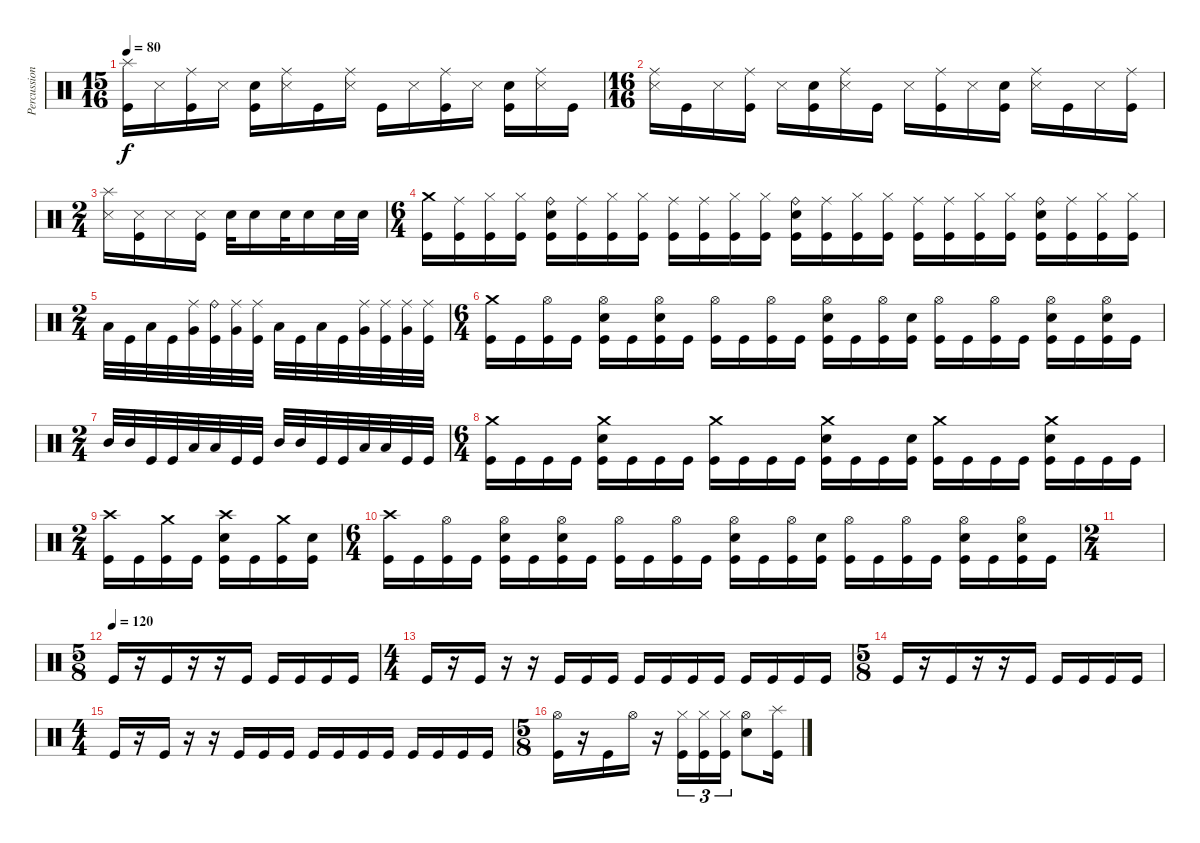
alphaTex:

\track ("Percussion" "Percussion") {instrument percussion}
\staff {score}
\articulation defaults
\ts (15 16)
\tempo 80
\clef neutral
\ks c
("Splash (hit)" "Kick (hit)").16{dy f} "Snare (side stick) 3".16 ("Ride (middle)" "Kick (hit)").16 "Snare (side stick) 3".16 ("Electric Snare (hit)" "Kick (hit)").16 ("Ride (middle)" "Snare (side stick) 3").16 "Kick (hit)".16 ("Ride (middle)" "Snare (side stick) 3").16 "Kick (hit)".16 "Snare (side stick) 3".16 ("Ride (middle)" "Kick (hit)").16 "Snare (side stick) 3".16 ("Electric Snare (hit)" "Kick (hit)").16 ("Ride (middle)" "Snare (side stick) 3").16 "Kick (hit)".16 |
\ts (16 16)
("Ride (middle)" "Snare (side stick) 3").16 "Kick (hit)".16 "Snare (side stick) 3".16 ("Ride (middle)" "Kick (hit)").16 "Snare (side stick) 3".16 ("Electric Snare (hit)" "Kick (hit)").16 ("Ride (middle)" "Snare (side stick) 3").16 "Kick (hit)".16 "Snare (side stick) 3".16 ("Ride (middle)" "Kick (hit)").16 "Snare (side stick) 3".16 ("Electric Snare (hit)" "Kick (hit)").16 ("Ride (middle)" "Snare (side stick) 3").16 "Kick (hit)".16 "Snare (side stick) 3".16 ("Ride (middle)" "Kick (hit)").16 |
\ts (2 4)
("Splash (hit)" "Snare (side stick) 3").16 ("Snare (side stick) 3" "Kick (hit)").16 "Snare (side stick) 3".16 ("Snare (side stick) 3" "Kick (hit)").16 "Electric Snare (hit)".32 "Electric Snare (hit)".16 "Electric Snare (hit)".32 "Electric Snare (hit)".16 "Electric Snare (hit)".32 "Electric Snare (hit)".32 |
\ts (6 4)
("Crash medium (hit)" "Kick (hit)").16 ("Ride (middle)" "Kick (hit)").16 ("Hi-Hat (closed)" "Kick (hit)").16 ("Hi-Hat (closed)" "Kick (hit)").16 ("Ride (bell)" "Electric Snare (hit)" "Kick (hit)").16 ("Ride (middle)" "Kick (hit)").16 ("Hi-Hat (closed)" "Kick (hit)").16 ("Hi-Hat (closed)" "Kick (hit)").16 ("Ride (middle)" "Kick (hit)").16 ("Ride (middle)" "Kick (hit)").16 ("Hi-Hat (closed)" "Kick (hit)").16 ("Hi-Hat (closed)" "Kick (hit)").16 ("Ride (bell)" "Electric Snare (hit)" "Kick (hit)").16 ("Ride (middle)" "Kick (hit)").16 ("Hi-Hat (closed)" "Kick (hit)").16 ("Hi-Hat (closed)" "Kick (hit)").16 ("Ride (middle)" "Kick (hit)").16 ("Ride (middle)" "Kick (hit)").16 ("Hi-Hat (closed)" "Kick (hit)").16 ("Hi-Hat (closed)" "Kick (hit)").16 ("Ride (bell)" "Electric Snare (hit)" "Kick (hit)").16 ("Ride (middle)" "Kick (hit)").16 ("Hi-Hat (closed)" "Kick (hit)").16 ("Hi-Hat (closed)" "Kick (hit)").16 |
\ts (2 4)
"Low Tom (hit)".32 "Kick (hit)".32 "Low Tom (hit)".32 "Kick (hit)".32 ("Ride (middle)" "Very Low Tom (hit)").32 ("Ride (bell)" "Kick (hit)").32 ("Ride (middle)" "Very Low Tom (hit)").32 ("Ride (middle)" "Kick (hit)").32 "Low Tom (hit)".32 "Kick (hit)".32 "Low Tom (hit)".32 "Kick (hit)".32 ("Ride (middle)" "Very Low Tom (hit)").32 ("Ride (middle)" "Kick (hit)").32 ("Ride (middle)" "Very Low Tom (hit)").32 ("Ride (middle)" "Kick (hit)").32 |
\ts (6 4)
("Crash medium (hit)" "Kick (hit)").16 "Kick (hit)".16 ("Hi-Hat (open)" "Kick (hit)").16 "Kick (hit)".16 ("Hi-Hat (open)" "Electric Snare (hit)" "Kick (hit)").16 "Kick (hit)".16 ("Hi-Hat (open)" "Electric Snare (hit)" "Kick (hit)").16 "Kick (hit)".16 ("Hi-Hat (open)" "Kick (hit)").16 "Kick (hit)".16 ("Hi-Hat (open)" "Kick (hit)").16 "Kick (hit)".16 ("Hi-Hat (open)" "Electric Snare (hit)" "Kick (hit)").16 "Kick (hit)".16 ("Hi-Hat (open)" "Kick (hit)").16 ("Electric Snare (hit)" "Kick (hit)").16 ("Hi-Hat (open)" "Kick (hit)").16 "Kick (hit)".16 ("Hi-Hat (open)" "Kick (hit)").16 "Kick (hit)".16 ("Hi-Hat (open)" "Electric Snare (hit)" "Kick (hit)").16 "Kick (hit)".16 ("Hi-Hat (open)" "Electric Snare (hit)" "Kick (hit)").16 "Kick (hit)".16 |
\ts (2 4)
"Mid Tom (hit)".32 "Mid Tom (hit)".32 "Kick (hit)".32 "Kick (hit)".32 "Low Tom (hit)".32 "Low Tom (hit)".32 "Kick (hit)".32 "Kick (hit)".32 "Mid Tom (hit)".32 "Mid Tom (hit)".32 "Kick (hit)".32 "Kick (hit)".32 "Low Tom (hit)".32 "Low Tom (hit)".32 "Kick (hit)".32 "Kick (hit)".32 |
\ts (6 4)
("Crash medium (hit)" "Kick (hit)").16 "Kick (hit)".16 "Kick (hit)".16 "Kick (hit)".16 ("Crash medium (hit)" "Electric Snare (hit)" "Kick (hit)").16 "Kick (hit)".16 "Kick (hit)".16 "Kick (hit)".16 ("Crash medium (hit)" "Kick (hit)").16 "Kick (hit)".16 "Kick (hit)".16 "Kick (hit)".16 ("Crash medium (hit)" "Electric Snare (hit)" "Kick (hit)").16 "Kick (hit)".16 "Kick (hit)".16 ("Electric Snare (hit)" "Kick (hit)").16 ("Crash medium (hit)" "Kick (hit)").16 "Kick (hit)".16 "Kick (hit)".16 "Kick (hit)".16 ("Crash medium (hit)" "Electric Snare (hit)" "Kick (hit)").16 "Kick (hit)".16 "Kick (hit)".16 "Kick (hit)".16 |
\ts (2 4)
("Crash high (hit)" "Kick (hit)").16 "Kick (hit)".16 ("Crash medium (hit)" "Kick (hit)").16 "Kick (hit)".16 ("Crash high (hit)" "Electric Snare (hit)" "Kick (hit)").16 "Kick (hit)".16 ("Crash medium (hit)" "Kick (hit)").16 ("Electric Snare (hit)" "Kick (hit)").16 |
\ts (6 4)
("Crash high (hit)" "Kick (hit)").16 "Kick (hit)".16 ("Hi-Hat (open)" "Kick (hit)").16 "Kick (hit)".16 ("Hi-Hat (open)" "Electric Snare (hit)" "Kick (hit)").16 "Kick (hit)".16 ("Hi-Hat (open)" "Electric Snare (hit)" "Kick (hit)").16 "Kick (hit)".16 ("Hi-Hat (open)" "Kick (hit)").16 "Kick (hit)".16 ("Hi-Hat (open)" "Kick (hit)").16 "Kick (hit)".16 ("Hi-Hat (open)" "Electric Snare (hit)" "Kick (hit)").16 "Kick (hit)".16 ("Hi-Hat (open)" "Kick (hit)").16 ("Electric Snare (hit)" "Kick (hit)").16 ("Hi-Hat (open)" "Kick (hit)").16 "Kick (hit)".16 ("Hi-Hat (open)" "Kick (hit)").16 "Kick (hit)".16 ("Hi-Hat (open)" "Electric Snare (hit)" "Kick (hit)").16 "Kick (hit)".16 ("Hi-Hat (open)" "Electric Snare (hit)" "Kick (hit)").16 "Kick (hit)".16 |
\ts (2 4)
|
\ts (5 8)
\tempo (120)
"Kick (hit)".16 r.16 "Kick (hit)".16 r.16 r.16 "Kick (hit)".16 "Kick (hit)".16 "Kick (hit)".16 "Kick (hit)".16 "Kick (hit)".16 |
\ts (4 4)
"Kick (hit)".16 r.16 "Kick (hit)".16 r.16 r.16 "Kick (hit)".16 "Kick (hit)".16 "Kick (hit)".16 "Kick (hit)".16 "Kick (hit)".16 "Kick (hit)".16 "Kick (hit)".16 "Kick (hit)".16 "Kick (hit)".16 "Kick (hit)".16 "Kick (hit)".16 |
\ts (5 8)
"Kick (hit)".16 r.16 "Kick (hit)".16 r.16 r.16 "Kick (hit)".16 "Kick (hit)".16 "Kick (hit)".16 "Kick (hit)".16 "Kick (hit)".16 |
\ts (4 4)
"Kick (hit)".16 r.16 "Kick (hit)".16 r.16 r.16 "Kick (hit)".16 "Kick (hit)".16 "Kick (hit)".16 "Kick (hit)".16 "Kick (hit)".16 "Kick (hit)".16 "Kick (hit)".16 "Kick (hit)".16 "Kick (hit)".16 "Kick (hit)".16 "Kick (hit)".16 |
\ts (5 8)
("Hi-Hat (open)" "Kick (hit)").16 r.16 "Kick (hit)".16 "Hi-Hat (open)".16 r.16 ("Hi-Hat (closed)" "Kick (hit)").16{tu (3 2)} ("Hi-Hat (closed)" "Kick (hit)").16{tu (3 2)} ("Hi-Hat (closed)" "Kick (hit)").16{tu (3 2)} ("Hi-Hat (open)" "Electric Snare (hit)").8 ("Splash (hit)" "Kick (hit)").16
